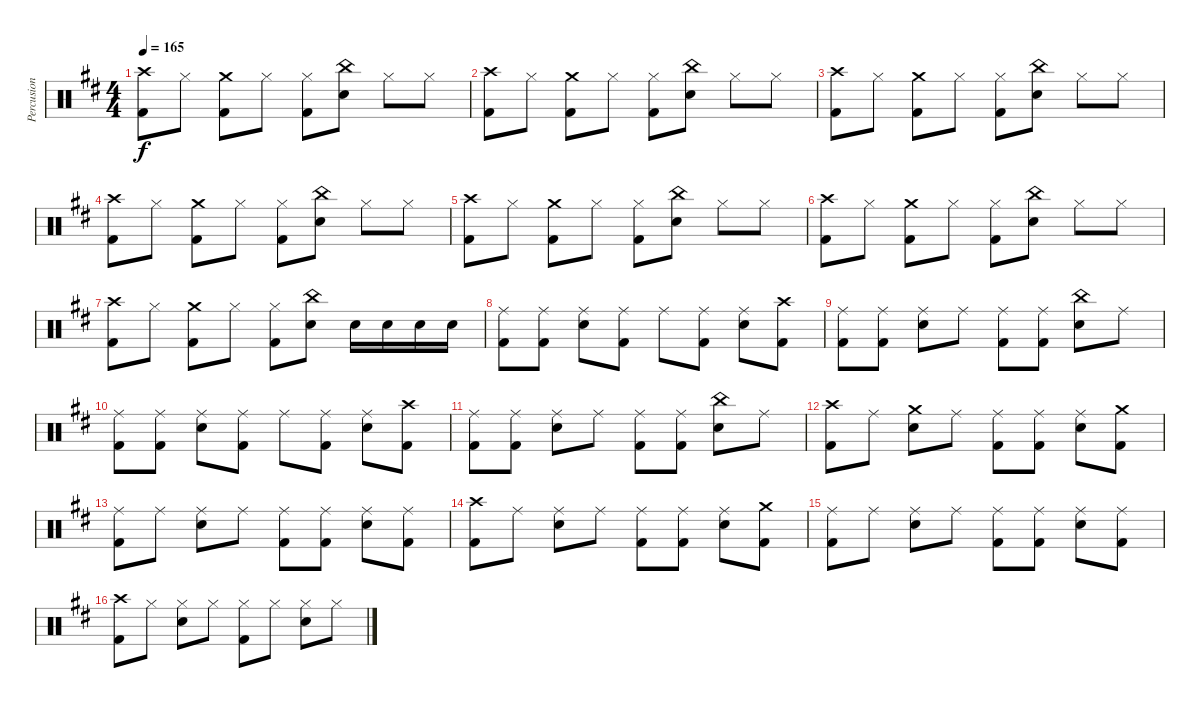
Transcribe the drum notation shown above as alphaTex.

\track ("Percusion" "Percusion") {instrument percussion}
\staff {score}
\articulation defaults
\ts (4 4)
\tempo 165
\clef neutral
\ks d
("Crash high (hit)" "Kick (hit) 2").8{dy f} "Hi-Hat (closed)".8 ("Crash medium (hit)" "Kick (hit) 2").8 "Hi-Hat (closed)".8 ("Hi-Hat (closed)" "Kick (hit) 2").8 ("China (hit)" "Electric Snare (hit)").8 "Hi-Hat (closed)".8 "Hi-Hat (closed)".8 |
("Crash high (hit)" "Kick (hit) 2").8 "Hi-Hat (closed)".8 ("Crash medium (hit)" "Kick (hit) 2").8 "Hi-Hat (closed)".8 ("Hi-Hat (closed)" "Kick (hit) 2").8 ("China (hit)" "Electric Snare (hit)").8 "Hi-Hat (closed)".8 "Hi-Hat (closed)".8 |
("Crash high (hit)" "Kick (hit) 2").8 "Hi-Hat (closed)".8 ("Crash medium (hit)" "Kick (hit) 2").8 "Hi-Hat (closed)".8 ("Hi-Hat (closed)" "Kick (hit) 2").8 ("China (hit)" "Electric Snare (hit)").8 "Hi-Hat (closed)".8 "Hi-Hat (closed)".8 |
("Crash high (hit)" "Kick (hit) 2").8 "Hi-Hat (closed)".8 ("Crash medium (hit)" "Kick (hit) 2").8 "Hi-Hat (closed)".8 ("Hi-Hat (closed)" "Kick (hit) 2").8 ("China (hit)" "Electric Snare (hit)").8 "Hi-Hat (closed)".8 "Hi-Hat (closed)".8 |
("Crash high (hit)" "Kick (hit) 2").8 "Hi-Hat (closed)".8 ("Crash medium (hit)" "Kick (hit) 2").8 "Hi-Hat (closed)".8 ("Hi-Hat (closed)" "Kick (hit) 2").8 ("China (hit)" "Electric Snare (hit)").8 "Hi-Hat (closed)".8 "Hi-Hat (closed)".8 |
("Crash high (hit)" "Kick (hit) 2").8 "Hi-Hat (closed)".8 ("Crash medium (hit)" "Kick (hit) 2").8 "Hi-Hat (closed)".8 ("Hi-Hat (closed)" "Kick (hit) 2").8 ("China (hit)" "Electric Snare (hit)").8 "Hi-Hat (closed)".8 "Hi-Hat (closed)".8 |
("Crash high (hit)" "Kick (hit) 2").8 "Hi-Hat (closed)".8 ("Crash medium (hit)" "Kick (hit) 2").8 "Hi-Hat (closed)".8 ("Hi-Hat (closed)" "Kick (hit) 2").8 ("China (hit)" "Electric Snare (hit)").8 "Electric Snare (hit)".16 "Electric Snare (hit)".16 "Electric Snare (hit)".16 "Electric Snare (hit)".16 |
("Ride (middle)" "Kick (hit) 2").8 ("Ride (middle)" "Kick (hit) 2").8 ("Ride (middle)" "Electric Snare (hit)").8 ("Ride (middle)" "Kick (hit) 2").8 "Ride (middle)".8 ("Ride (middle)" "Kick (hit) 2").8 ("Ride (middle)" "Electric Snare (hit)").8 ("Crash high (hit)" "Kick (hit) 2").8 |
("Ride (middle)" "Kick (hit) 2").8 ("Ride (middle)" "Kick (hit) 2").8 ("Ride (middle)" "Electric Snare (hit)").8 "Ride (middle)".8 ("Ride (middle)" "Kick (hit) 2").8 ("Ride (middle)" "Kick (hit) 2").8 ("China (hit)" "Electric Snare (hit)").8 "Ride (middle)".8 |
("Ride (middle)" "Kick (hit) 2").8 ("Ride (middle)" "Kick (hit) 2").8 ("Ride (middle)" "Electric Snare (hit)").8 ("Ride (middle)" "Kick (hit) 2").8 "Ride (middle)".8 ("Ride (middle)" "Kick (hit) 2").8 ("Ride (middle)" "Electric Snare (hit)").8 ("Crash high (hit)" "Kick (hit) 2").8 |
("Ride (middle)" "Kick (hit) 2").8 ("Ride (middle)" "Kick (hit) 2").8 ("Ride (middle)" "Electric Snare (hit)").8 "Ride (middle)".8 ("Ride (middle)" "Kick (hit) 2").8 ("Ride (middle)" "Kick (hit) 2").8 ("China (hit)" "Electric Snare (hit)").8 "Ride (middle)".8 |
("Crash high (hit)" "Kick (hit) 2").8 "Ride (middle)".8 ("Crash medium (hit)" "Electric Snare (hit)").8 "Ride (middle)".8 ("Ride (middle)" "Kick (hit) 2").8 ("Ride (middle)" "Kick (hit) 2").8 ("Ride (middle)" "Electric Snare (hit)").8 ("Crash medium (hit)" "Kick (hit) 2").8 |
("Ride (middle)" "Kick (hit) 2").8 "Ride (middle)".8 ("Ride (middle)" "Electric Snare (hit)").8 "Ride (middle)".8 ("Ride (middle)" "Kick (hit) 2").8 ("Ride (middle)" "Kick (hit) 2").8 ("Ride (middle)" "Electric Snare (hit)").8 ("Ride (middle)" "Kick (hit) 2").8 |
("Crash high (hit)" "Kick (hit) 2").8 "Ride (middle)".8 ("Ride (middle)" "Electric Snare (hit)").8 "Ride (middle)".8 ("Ride (middle)" "Kick (hit) 2").8 ("Ride (middle)" "Kick (hit) 2").8 ("Ride (middle)" "Electric Snare (hit)").8 ("Crash medium (hit)" "Kick (hit) 2").8 |
("Ride (middle)" "Kick (hit) 2").8 "Ride (middle)".8 ("Ride (middle)" "Electric Snare (hit)").8 "Ride (middle)".8 ("Ride (middle)" "Kick (hit) 2").8 ("Ride (middle)" "Kick (hit) 2").8 ("Ride (middle)" "Electric Snare (hit)").8 ("Ride (middle)" "Kick (hit) 2").8 |
("Crash high (hit)" "Kick (hit) 2").8 "Hi-Hat (closed)".8 ("Hi-Hat (closed)" "Electric Snare (hit)").8 "Hi-Hat (closed)".8 ("Hi-Hat (closed)" "Kick (hit) 2").8 "Hi-Hat (closed)".8 ("Hi-Hat (closed)" "Electric Snare (hit)").8 "Hi-Hat (closed)".8
